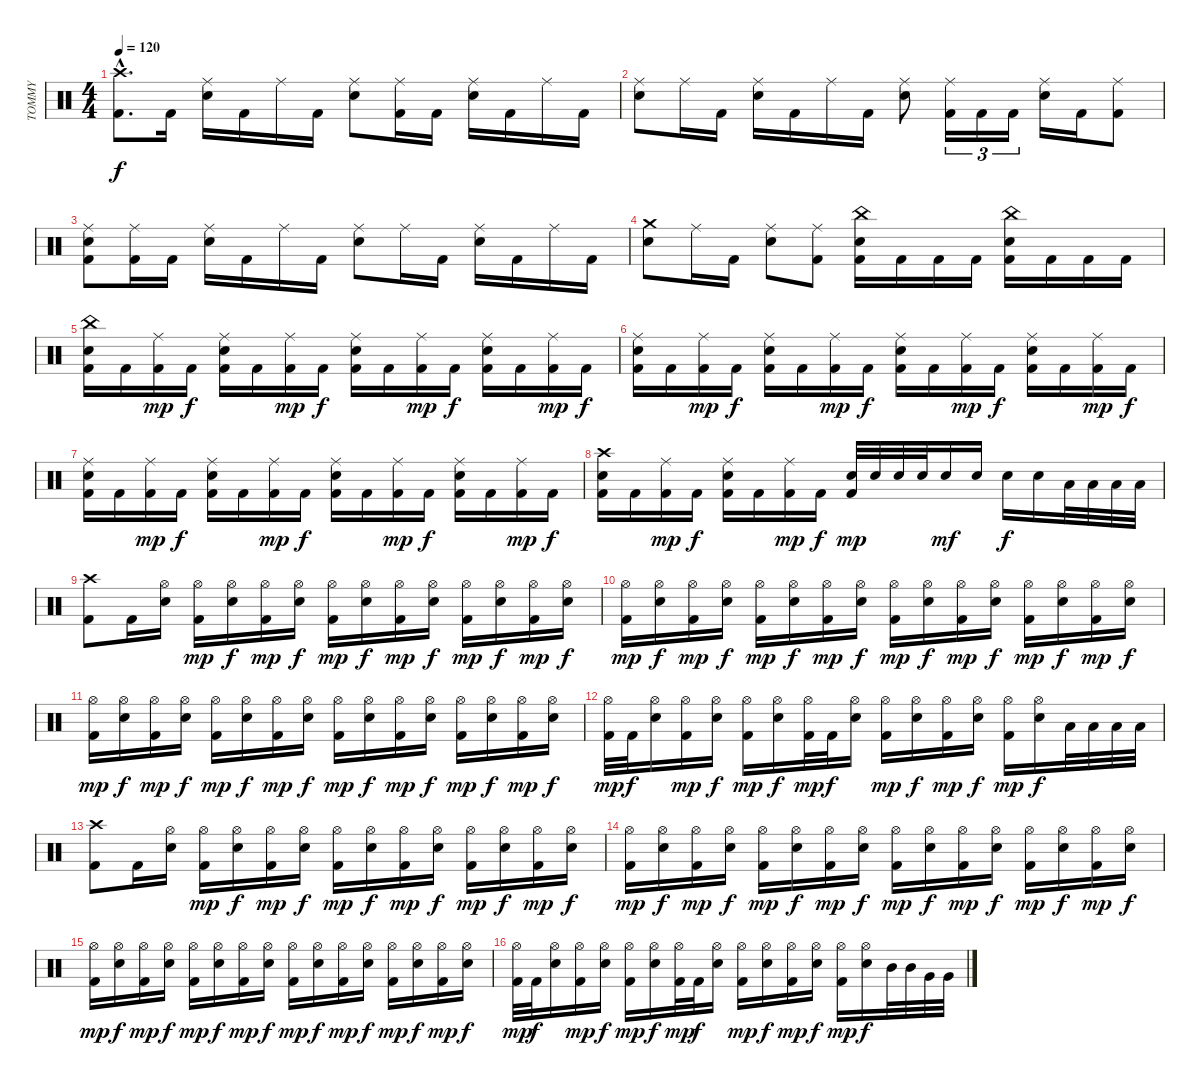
\track ("TOMMY" "TOMMY") {instrument percussion}
\staff {score}
\articulation defaults
\ts (4 4)
\tempo 120
\clef neutral
\ks c
("Kick (hit) 2"{hac} "Crash high (hit)"{hac}).8{d dy f} "Kick (hit) 2".16 ("Snare (hit) 2" "Ride (middle)").16 "Kick (hit) 2".16 "Ride (middle)".16 "Kick (hit) 2".16 ("Snare (hit) 2" "Ride (middle)").8 ("Kick (hit) 2" "Ride (middle)").16 "Kick (hit) 2".16 ("Snare (hit) 2" "Ride (middle)").16 "Kick (hit) 2".16 "Ride (middle)".16 "Kick (hit) 2".16 |
("Snare (hit) 2" "Ride (middle)").8 "Ride (middle)".16 "Kick (hit) 2".16 ("Snare (hit) 2" "Ride (middle)").16 "Kick (hit) 2".16 "Ride (middle)".16 "Kick (hit) 2".16 ("Snare (hit) 2" "Ride (middle)").8 ("Kick (hit) 2" "Ride (middle)").16{tu (3 2)} "Kick (hit) 2".16{tu (3 2)} "Kick (hit) 2".16{tu (3 2)} ("Snare (hit) 2" "Ride (middle)").16 "Kick (hit) 2".16 ("Kick (hit) 2" "Ride (middle)").8 |
("Snare (hit) 2" "Kick (hit) 2" "Ride (middle)").8 ("Kick (hit) 2" "Ride (middle)").16 "Kick (hit) 2".16 ("Snare (hit) 2" "Ride (middle)").16 "Kick (hit) 2".16 "Ride (middle)".16 "Kick (hit) 2".16 ("Snare (hit) 2" "Ride (middle)").8 "Ride (middle)".16 "Kick (hit) 2".16 ("Snare (hit) 2" "Ride (middle)").16 "Kick (hit) 2".16 "Ride (middle)".16 "Kick (hit) 2".16 |
("Snare (hit) 2" "Crash medium (hit)").8 "Ride (middle)".16 "Kick (hit) 2".16 ("Snare (hit) 2" "Ride (middle)").8 ("Kick (hit) 2" "Ride (middle)").8 ("Snare (hit) 2" "Kick (hit) 2" "China (hit)").16 "Kick (hit) 2".16 "Kick (hit) 2".16 "Kick (hit) 2".16 ("Snare (hit) 2" "Kick (hit) 2" "China (hit)").16 "Kick (hit) 2".16 "Kick (hit) 2".16 "Kick (hit) 2".16 |
("Snare (hit) 2" "Kick (hit) 2" "China (hit)").16 "Kick (hit) 2".16 ("Kick (hit) 2" "Ride (middle)").16{dy mp} "Kick (hit) 2".16{dy f} ("Snare (hit) 2" "Kick (hit) 2" "Ride (middle)").16 "Kick (hit) 2".16 ("Kick (hit) 2" "Ride (middle)").16{dy mp} "Kick (hit) 2".16{dy f} ("Snare (hit) 2" "Kick (hit) 2" "Ride (middle)").16 "Kick (hit) 2".16 ("Kick (hit) 2" "Ride (middle)").16{dy mp} "Kick (hit) 2".16{dy f} ("Snare (hit) 2" "Kick (hit) 2" "Ride (middle)").16 "Kick (hit) 2".16 ("Kick (hit) 2" "Ride (middle)").16{dy mp} "Kick (hit) 2".16{dy f} |
("Snare (hit) 2" "Kick (hit) 2" "Ride (middle)").16 "Kick (hit) 2".16 ("Kick (hit) 2" "Ride (middle)").16{dy mp} "Kick (hit) 2".16{dy f} ("Snare (hit) 2" "Kick (hit) 2" "Ride (middle)").16 "Kick (hit) 2".16 ("Kick (hit) 2" "Ride (middle)").16{dy mp} "Kick (hit) 2".16{dy f} ("Snare (hit) 2" "Kick (hit) 2" "Ride (middle)").16 "Kick (hit) 2".16 ("Kick (hit) 2" "Ride (middle)").16{dy mp} "Kick (hit) 2".16{dy f} ("Snare (hit) 2" "Kick (hit) 2" "Ride (middle)").16 "Kick (hit) 2".16 ("Kick (hit) 2" "Ride (middle)").16{dy mp} "Kick (hit) 2".16{dy f} |
("Snare (hit) 2" "Kick (hit) 2" "Ride (middle)").16 "Kick (hit) 2".16 ("Kick (hit) 2" "Ride (middle)").16{dy mp} "Kick (hit) 2".16{dy f} ("Snare (hit) 2" "Kick (hit) 2" "Ride (middle)").16 "Kick (hit) 2".16 ("Kick (hit) 2" "Ride (middle)").16{dy mp} "Kick (hit) 2".16{dy f} ("Snare (hit) 2" "Kick (hit) 2" "Ride (middle)").16 "Kick (hit) 2".16 ("Kick (hit) 2" "Ride (middle)").16{dy mp} "Kick (hit) 2".16{dy f} ("Snare (hit) 2" "Kick (hit) 2" "Ride (middle)").16 "Kick (hit) 2".16 ("Kick (hit) 2" "Ride (middle)").16{dy mp} "Kick (hit) 2".16{dy f} |
("Snare (hit) 2" "Kick (hit) 2" "Crash high (hit)").16 "Kick (hit) 2".16 ("Kick (hit) 2" "Ride (middle)").16{dy mp} "Kick (hit) 2".16{dy f} ("Snare (hit) 2" "Kick (hit) 2" "Ride (middle)").16 "Kick (hit) 2".16 ("Kick (hit) 2" "Ride (middle)").16{dy mp} "Kick (hit) 2".16{dy f} ("Snare (hit) 2" "Kick (hit) 2").32{dy mp} "Snare (hit) 2".32 "Snare (hit) 2".32 "Snare (hit) 2".32 "Snare (hit) 2".16{dy mf} "Snare (hit) 2".16 "Snare (hit) 2".16{dy f} "Snare (hit) 2".16 "Low Floor Tom (hit)".32 "Low Floor Tom (hit)".32 "Low Floor Tom (hit)".32 "Low Floor Tom (hit)".32 |
("Kick (hit) 2" "Crash high (hit)").8 "Kick (hit) 2".16 ("Snare (hit) 2" "Hi-Hat (open)").16 ("Kick (hit) 2" "Hi-Hat (open)").16{dy mp} ("Snare (hit) 2" "Hi-Hat (open)").16{dy f} ("Kick (hit) 2" "Hi-Hat (open)").16{dy mp} ("Snare (hit) 2" "Hi-Hat (open)").16{dy f} ("Kick (hit) 2" "Hi-Hat (open)").16{dy mp} ("Snare (hit) 2" "Hi-Hat (open)").16{dy f} ("Kick (hit) 2" "Hi-Hat (open)").16{dy mp} ("Snare (hit) 2" "Hi-Hat (open)").16{dy f} ("Kick (hit) 2" "Hi-Hat (open)").16{dy mp} ("Snare (hit) 2" "Hi-Hat (open)").16{dy f} ("Kick (hit) 2" "Hi-Hat (open)").16{dy mp} ("Snare (hit) 2" "Hi-Hat (open)").16{dy f} |
("Kick (hit) 2" "Hi-Hat (open)").16{dy mp} ("Snare (hit) 2" "Hi-Hat (open)").16{dy f} ("Kick (hit) 2" "Hi-Hat (open)").16{dy mp} ("Snare (hit) 2" "Hi-Hat (open)").16{dy f} ("Kick (hit) 2" "Hi-Hat (open)").16{dy mp} ("Snare (hit) 2" "Hi-Hat (open)").16{dy f} ("Kick (hit) 2" "Hi-Hat (open)").16{dy mp} ("Snare (hit) 2" "Hi-Hat (open)").16{dy f} ("Kick (hit) 2" "Hi-Hat (open)").16{dy mp} ("Snare (hit) 2" "Hi-Hat (open)").16{dy f} ("Kick (hit) 2" "Hi-Hat (open)").16{dy mp} ("Snare (hit) 2" "Hi-Hat (open)").16{dy f} ("Kick (hit) 2" "Hi-Hat (open)").16{dy mp} ("Snare (hit) 2" "Hi-Hat (open)").16{dy f} ("Kick (hit) 2" "Hi-Hat (open)").16{dy mp} ("Snare (hit) 2" "Hi-Hat (open)").16{dy f} |
("Kick (hit) 2" "Hi-Hat (open)").16{dy mp} ("Snare (hit) 2" "Hi-Hat (open)").16{dy f} ("Kick (hit) 2" "Hi-Hat (open)").16{dy mp} ("Snare (hit) 2" "Hi-Hat (open)").16{dy f} ("Kick (hit) 2" "Hi-Hat (open)").16{dy mp} ("Snare (hit) 2" "Hi-Hat (open)").16{dy f} ("Kick (hit) 2" "Hi-Hat (open)").16{dy mp} ("Snare (hit) 2" "Hi-Hat (open)").16{dy f} ("Kick (hit) 2" "Hi-Hat (open)").16{dy mp} ("Snare (hit) 2" "Hi-Hat (open)").16{dy f} ("Kick (hit) 2" "Hi-Hat (open)").16{dy mp} ("Snare (hit) 2" "Hi-Hat (open)").16{dy f} ("Kick (hit) 2" "Hi-Hat (open)").16{dy mp} ("Snare (hit) 2" "Hi-Hat (open)").16{dy f} ("Kick (hit) 2" "Hi-Hat (open)").16{dy mp} ("Snare (hit) 2" "Hi-Hat (open)").16{dy f} |
("Kick (hit) 2" "Hi-Hat (open)").32{dy mp} "Kick (hit) 2".32{dy f} ("Snare (hit) 2" "Hi-Hat (open)").16 ("Kick (hit) 2" "Hi-Hat (open)").16{dy mp} ("Snare (hit) 2" "Hi-Hat (open)").16{dy f} ("Kick (hit) 2" "Hi-Hat (open)").16{dy mp} ("Snare (hit) 2" "Hi-Hat (open)").16{dy f} ("Kick (hit) 2" "Hi-Hat (open)").32{dy mp} "Kick (hit) 2".32{dy f} ("Snare (hit) 2" "Hi-Hat (open)").16 ("Kick (hit) 2" "Hi-Hat (open)").16{dy mp} ("Snare (hit) 2" "Hi-Hat (open)").16{dy f} ("Kick (hit) 2" "Hi-Hat (open)").16{dy mp} ("Snare (hit) 2" "Hi-Hat (open)").16{dy f} ("Kick (hit) 2" "Hi-Hat (open)").16{dy mp} ("Snare (hit) 2" "Hi-Hat (open)").16{dy f} "Low Floor Tom (hit)".32 "Low Floor Tom (hit)".32 "Low Floor Tom (hit)".32 "Low Floor Tom (hit)".32 |
("Kick (hit) 2" "Crash high (hit)").8 "Kick (hit) 2".16 ("Snare (hit) 2" "Hi-Hat (open)").16 ("Kick (hit) 2" "Hi-Hat (open)").16{dy mp} ("Snare (hit) 2" "Hi-Hat (open)").16{dy f} ("Kick (hit) 2" "Hi-Hat (open)").16{dy mp} ("Snare (hit) 2" "Hi-Hat (open)").16{dy f} ("Kick (hit) 2" "Hi-Hat (open)").16{dy mp} ("Snare (hit) 2" "Hi-Hat (open)").16{dy f} ("Kick (hit) 2" "Hi-Hat (open)").16{dy mp} ("Snare (hit) 2" "Hi-Hat (open)").16{dy f} ("Kick (hit) 2" "Hi-Hat (open)").16{dy mp} ("Snare (hit) 2" "Hi-Hat (open)").16{dy f} ("Kick (hit) 2" "Hi-Hat (open)").16{dy mp} ("Snare (hit) 2" "Hi-Hat (open)").16{dy f} |
("Kick (hit) 2" "Hi-Hat (open)").16{dy mp} ("Snare (hit) 2" "Hi-Hat (open)").16{dy f} ("Kick (hit) 2" "Hi-Hat (open)").16{dy mp} ("Snare (hit) 2" "Hi-Hat (open)").16{dy f} ("Kick (hit) 2" "Hi-Hat (open)").16{dy mp} ("Snare (hit) 2" "Hi-Hat (open)").16{dy f} ("Kick (hit) 2" "Hi-Hat (open)").16{dy mp} ("Snare (hit) 2" "Hi-Hat (open)").16{dy f} ("Kick (hit) 2" "Hi-Hat (open)").16{dy mp} ("Snare (hit) 2" "Hi-Hat (open)").16{dy f} ("Kick (hit) 2" "Hi-Hat (open)").16{dy mp} ("Snare (hit) 2" "Hi-Hat (open)").16{dy f} ("Kick (hit) 2" "Hi-Hat (open)").16{dy mp} ("Snare (hit) 2" "Hi-Hat (open)").16{dy f} ("Kick (hit) 2" "Hi-Hat (open)").16{dy mp} ("Snare (hit) 2" "Hi-Hat (open)").16{dy f} |
("Kick (hit) 2" "Hi-Hat (open)").16{dy mp} ("Snare (hit) 2" "Hi-Hat (open)").16{dy f} ("Kick (hit) 2" "Hi-Hat (open)").16{dy mp} ("Snare (hit) 2" "Hi-Hat (open)").16{dy f} ("Kick (hit) 2" "Hi-Hat (open)").16{dy mp} ("Snare (hit) 2" "Hi-Hat (open)").16{dy f} ("Kick (hit) 2" "Hi-Hat (open)").16{dy mp} ("Snare (hit) 2" "Hi-Hat (open)").16{dy f} ("Kick (hit) 2" "Hi-Hat (open)").16{dy mp} ("Snare (hit) 2" "Hi-Hat (open)").16{dy f} ("Kick (hit) 2" "Hi-Hat (open)").16{dy mp} ("Snare (hit) 2" "Hi-Hat (open)").16{dy f} ("Kick (hit) 2" "Hi-Hat (open)").16{dy mp} ("Snare (hit) 2" "Hi-Hat (open)").16{dy f} ("Kick (hit) 2" "Hi-Hat (open)").16{dy mp} ("Snare (hit) 2" "Hi-Hat (open)").16{dy f} |
("Kick (hit) 2" "Hi-Hat (open)").32{dy mp} "Kick (hit) 2".32{dy f} ("Snare (hit) 2" "Hi-Hat (open)").16 ("Kick (hit) 2" "Hi-Hat (open)").16{dy mp} ("Snare (hit) 2" "Hi-Hat (open)").16{dy f} ("Kick (hit) 2" "Hi-Hat (open)").16{dy mp} ("Snare (hit) 2" "Hi-Hat (open)").16{dy f} ("Kick (hit) 2" "Hi-Hat (open)").32{dy mp} "Kick (hit) 2".32{dy f} ("Snare (hit) 2" "Hi-Hat (open)").16 ("Kick (hit) 2" "Hi-Hat (open)").16{dy mp} ("Snare (hit) 2" "Hi-Hat (open)").16{dy f} ("Kick (hit) 2" "Hi-Hat (open)").16{dy mp} ("Snare (hit) 2" "Hi-Hat (open)").16{dy f} ("Kick (hit) 2" "Hi-Hat (open)").16{dy mp} ("Snare (hit) 2" "Hi-Hat (open)").16{dy f} "Mid Tom (hit)".32 "Mid Tom (hit)".32 "Very Low Tom (hit)".32 "Very Low Tom (hit)".32
